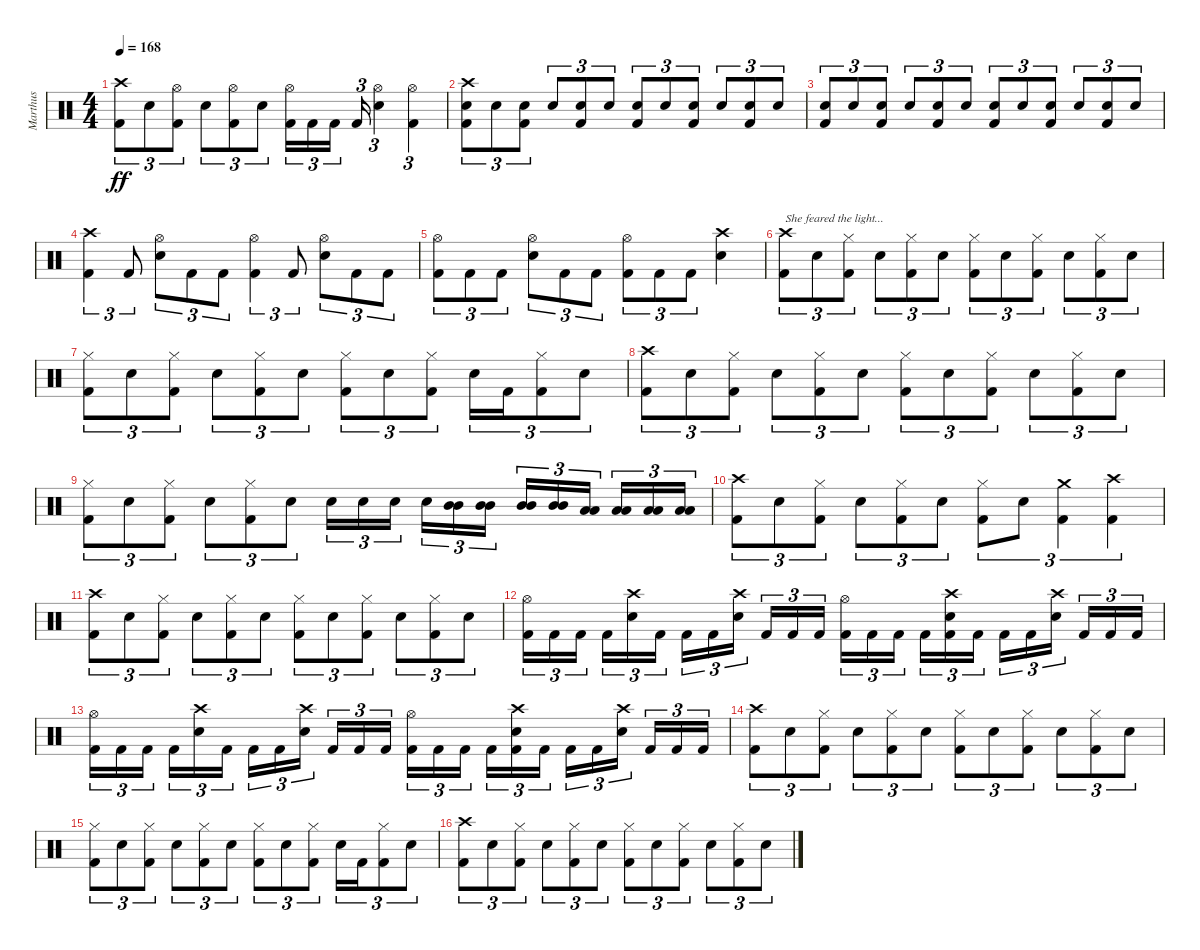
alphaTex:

\track ("Marthus" "Marthus") {instrument percussion}
\staff {score}
\articulation defaults
\ts (4 4)
\tempo 168
\clef neutral
\ks c
("Crash high (hit)" "Kick (hit) 2").8{tu (3 2) dy ff} "Electric Snare (hit)".8{tu (3 2)} ("Hi-Hat (open)" "Kick (hit) 2").8{tu (3 2)} "Electric Snare (hit)".8{tu (3 2)} ("Hi-Hat (open)" "Kick (hit) 2").8{tu (3 2)} "Electric Snare (hit)".8{tu (3 2)} ("Hi-Hat (open)" "Kick (hit) 2").16{tu (3 2)} "Kick (hit) 2".16{tu (3 2)} "Kick (hit) 2".16{tu (3 2) beam splitsecondary} "Kick (hit) 2".16{tu (3 2)} ("Hi-Hat (open)" "Electric Snare (hit)").4{tu (3 2)} ("Hi-Hat (open)" "Kick (hit) 2").4{tu (3 2)} |
("Crash high (hit)" "Electric Snare (hit)" "Kick (hit) 2").8{tu (3 2)} "Electric Snare (hit)".8{tu (3 2)} ("Electric Snare (hit)" "Kick (hit) 2").8{tu (3 2)} "Electric Snare (hit)".8{tu (3 2)} ("Electric Snare (hit)" "Kick (hit) 2").8{tu (3 2)} "Electric Snare (hit)".8{tu (3 2)} ("Electric Snare (hit)" "Kick (hit) 2").8{tu (3 2)} "Electric Snare (hit)".8{tu (3 2)} ("Electric Snare (hit)" "Kick (hit) 2").8{tu (3 2)} "Electric Snare (hit)".8{tu (3 2)} ("Electric Snare (hit)" "Kick (hit) 2").8{tu (3 2)} "Electric Snare (hit)".8{tu (3 2)} |
("Electric Snare (hit)" "Kick (hit) 2").8{tu (3 2)} "Electric Snare (hit)".8{tu (3 2)} ("Electric Snare (hit)" "Kick (hit) 2").8{tu (3 2)} "Electric Snare (hit)".8{tu (3 2)} ("Electric Snare (hit)" "Kick (hit) 2").8{tu (3 2)} "Electric Snare (hit)".8{tu (3 2)} ("Electric Snare (hit)" "Kick (hit) 2").8{tu (3 2)} "Electric Snare (hit)".8{tu (3 2)} ("Electric Snare (hit)" "Kick (hit) 2").8{tu (3 2)} "Electric Snare (hit)".8{tu (3 2)} ("Electric Snare (hit)" "Kick (hit) 2").8{tu (3 2)} "Electric Snare (hit)".8{tu (3 2)} |
("Crash high (hit)" "Kick (hit) 2").4{tu (3 2)} "Kick (hit) 2".8{tu (3 2)} ("Hi-Hat (open)" "Electric Snare (hit)").8{tu (3 2)} "Kick (hit) 2".8{tu (3 2)} "Kick (hit) 2".8{tu (3 2)} ("Hi-Hat (open)" "Kick (hit) 2").4{tu (3 2)} "Kick (hit) 2".8{tu (3 2)} ("Hi-Hat (open)" "Electric Snare (hit)").8{tu (3 2)} "Kick (hit) 2".8{tu (3 2)} "Kick (hit) 2".8{tu (3 2)} |
("Hi-Hat (open)" "Kick (hit) 2").8{tu (3 2)} "Kick (hit) 2".8{tu (3 2)} "Kick (hit) 2".8{tu (3 2)} ("Hi-Hat (open)" "Electric Snare (hit)").8{tu (3 2)} "Kick (hit) 2".8{tu (3 2)} "Kick (hit) 2".8{tu (3 2)} ("Hi-Hat (open)" "Kick (hit) 2").8{tu (3 2)} "Kick (hit) 2".8{tu (3 2)} "Kick (hit) 2".8{tu (3 2)} ("Crash high (hit)" "Electric Snare (hit)").4 |
("Crash high (hit)" "Kick (hit) 2").8{tu (3 2) txt "She feared the light..."} "Electric Snare (hit)".8{tu (3 2)} ("Hi-Hat (closed)" "Kick (hit) 2").8{tu (3 2)} "Electric Snare (hit)".8{tu (3 2)} ("Hi-Hat (closed)" "Kick (hit) 2").8{tu (3 2)} "Electric Snare (hit)".8{tu (3 2)} ("Hi-Hat (closed)" "Kick (hit) 2").8{tu (3 2)} "Electric Snare (hit)".8{tu (3 2)} ("Hi-Hat (closed)" "Kick (hit) 2").8{tu (3 2)} "Electric Snare (hit)".8{tu (3 2)} ("Hi-Hat (closed)" "Kick (hit) 2").8{tu (3 2)} "Electric Snare (hit)".8{tu (3 2)} |
("Hi-Hat (closed)" "Kick (hit) 2").8{tu (3 2)} "Electric Snare (hit)".8{tu (3 2)} ("Hi-Hat (closed)" "Kick (hit) 2").8{tu (3 2)} "Electric Snare (hit)".8{tu (3 2)} ("Hi-Hat (closed)" "Kick (hit) 2").8{tu (3 2)} "Electric Snare (hit)".8{tu (3 2)} ("Hi-Hat (closed)" "Kick (hit) 2").8{tu (3 2)} "Electric Snare (hit)".8{tu (3 2)} ("Hi-Hat (closed)" "Kick (hit) 2").8{tu (3 2)} "Electric Snare (hit)".16{tu (3 2)} "Kick (hit) 2".16{tu (3 2)} ("Hi-Hat (closed)" "Kick (hit) 2").8{tu (3 2)} "Electric Snare (hit)".8{tu (3 2)} |
("Crash high (hit)" "Kick (hit) 2").8{tu (3 2)} "Electric Snare (hit)".8{tu (3 2)} ("Hi-Hat (closed)" "Kick (hit) 2").8{tu (3 2)} "Electric Snare (hit)".8{tu (3 2)} ("Hi-Hat (closed)" "Kick (hit) 2").8{tu (3 2)} "Electric Snare (hit)".8{tu (3 2)} ("Hi-Hat (closed)" "Kick (hit) 2").8{tu (3 2)} "Electric Snare (hit)".8{tu (3 2)} ("Hi-Hat (closed)" "Kick (hit) 2").8{tu (3 2)} "Electric Snare (hit)".8{tu (3 2)} ("Hi-Hat (closed)" "Kick (hit) 2").8{tu (3 2)} "Electric Snare (hit)".8{tu (3 2)} |
("Hi-Hat (closed)" "Kick (hit) 2").8{tu (3 2)} "Electric Snare (hit)".8{tu (3 2)} ("Hi-Hat (closed)" "Kick (hit) 2").8{tu (3 2)} "Electric Snare (hit)".8{tu (3 2)} ("Hi-Hat (closed)" "Kick (hit) 2").8{tu (3 2)} "Electric Snare (hit)".8{tu (3 2)} "Electric Snare (hit)".16{tu (3 2)} "Electric Snare (hit)".16{tu (3 2)} "Electric Snare (hit)".16{tu (3 2) beam splitsecondary} "Electric Snare (hit)".16{tu (3 2)} ("Mid Tom (hit)" "Mid Tom (hit)").16{tu (3 2)} ("Mid Tom (hit)" "Mid Tom (hit)").16{tu (3 2)} ("Mid Tom (hit)" "Mid Tom (hit)").16{tu (3 2)} ("Mid Tom (hit)" "Mid Tom (hit)").16{tu (3 2)} ("Low Tom (hit)" "Low Tom (hit)").16{tu (3 2) beam splitsecondary} ("Low Tom (hit)" "Low Tom (hit)").16{tu (3 2)} ("Low Tom (hit)" "Low Tom (hit)").16{tu (3 2)} ("Low Tom (hit)" "Low Tom (hit)").16{tu (3 2)} |
("Crash high (hit)" "Kick (hit) 2").8{tu (3 2)} "Electric Snare (hit)".8{tu (3 2)} ("Hi-Hat (closed)" "Kick (hit) 2").8{tu (3 2)} "Electric Snare (hit)".8{tu (3 2)} ("Hi-Hat (closed)" "Kick (hit) 2").8{tu (3 2)} "Electric Snare (hit)".8{tu (3 2)} ("Hi-Hat (closed)" "Kick (hit) 2").8{tu (3 2)} "Electric Snare (hit)".8{tu (3 2)} ("Crash medium (hit)" "Kick (hit) 2").4{tu (3 2)} ("Crash high (hit)" "Kick (hit) 2").4{tu (3 2)} |
("Crash high (hit)" "Kick (hit) 2").8{tu (3 2)} "Electric Snare (hit)".8{tu (3 2)} ("Hi-Hat (closed)" "Kick (hit) 2").8{tu (3 2)} "Electric Snare (hit)".8{tu (3 2)} ("Hi-Hat (closed)" "Kick (hit) 2").8{tu (3 2)} "Electric Snare (hit)".8{tu (3 2)} ("Hi-Hat (closed)" "Kick (hit) 2").8{tu (3 2)} "Electric Snare (hit)".8{tu (3 2)} ("Hi-Hat (closed)" "Kick (hit) 2").8{tu (3 2)} "Electric Snare (hit)".8{tu (3 2)} ("Hi-Hat (closed)" "Kick (hit) 2").8{tu (3 2)} "Electric Snare (hit)".8{tu (3 2)} |
("Hi-Hat (open)" "Kick (hit) 2").16{tu (3 2)} "Kick (hit) 2".16{tu (3 2)} "Kick (hit) 2".16{tu (3 2) beam splitsecondary} "Kick (hit) 2".16{tu (3 2)} ("Crash high (hit)" "Electric Snare (hit)").16{tu (3 2)} "Kick (hit) 2".16{tu (3 2)} "Kick (hit) 2".16{tu (3 2)} "Kick (hit) 2".16{tu (3 2)} ("Crash high (hit)" "Electric Snare (hit)").16{tu (3 2) beam splitsecondary} "Kick (hit) 2".16{tu (3 2)} "Kick (hit) 2".16{tu (3 2)} "Kick (hit) 2".16{tu (3 2)} ("Hi-Hat (open)" "Kick (hit) 2").16{tu (3 2)} "Kick (hit) 2".16{tu (3 2)} "Kick (hit) 2".16{tu (3 2) beam splitsecondary} "Kick (hit) 2".16{tu (3 2)} ("Crash high (hit)" "Electric Snare (hit)" "Kick (hit) 2").16{tu (3 2)} "Kick (hit) 2".16{tu (3 2)} "Kick (hit) 2".16{tu (3 2)} "Kick (hit) 2".16{tu (3 2)} ("Crash high (hit)" "Electric Snare (hit)").16{tu (3 2) beam splitsecondary} "Kick (hit) 2".16{tu (3 2)} "Kick (hit) 2".16{tu (3 2)} "Kick (hit) 2".16{tu (3 2)} |
("Hi-Hat (open)" "Kick (hit) 2").16{tu (3 2)} "Kick (hit) 2".16{tu (3 2)} "Kick (hit) 2".16{tu (3 2) beam splitsecondary} "Kick (hit) 2".16{tu (3 2)} ("Crash high (hit)" "Electric Snare (hit)").16{tu (3 2)} "Kick (hit) 2".16{tu (3 2)} "Kick (hit) 2".16{tu (3 2)} "Kick (hit) 2".16{tu (3 2)} ("Crash high (hit)" "Electric Snare (hit)").16{tu (3 2) beam splitsecondary} "Kick (hit) 2".16{tu (3 2)} "Kick (hit) 2".16{tu (3 2)} "Kick (hit) 2".16{tu (3 2)} ("Hi-Hat (open)" "Kick (hit) 2").16{tu (3 2)} "Kick (hit) 2".16{tu (3 2)} "Kick (hit) 2".16{tu (3 2) beam splitsecondary} "Kick (hit) 2".16{tu (3 2)} ("Crash high (hit)" "Electric Snare (hit)" "Kick (hit) 2").16{tu (3 2)} "Kick (hit) 2".16{tu (3 2)} "Kick (hit) 2".16{tu (3 2)} "Kick (hit) 2".16{tu (3 2)} ("Crash high (hit)" "Electric Snare (hit)").16{tu (3 2) beam splitsecondary} "Kick (hit) 2".16{tu (3 2)} "Kick (hit) 2".16{tu (3 2)} "Kick (hit) 2".16{tu (3 2)} |
("Crash high (hit)" "Kick (hit) 2").8{tu (3 2)} "Electric Snare (hit)".8{tu (3 2)} ("Hi-Hat (closed)" "Kick (hit) 2").8{tu (3 2)} "Electric Snare (hit)".8{tu (3 2)} ("Hi-Hat (closed)" "Kick (hit) 2").8{tu (3 2)} "Electric Snare (hit)".8{tu (3 2)} ("Hi-Hat (closed)" "Kick (hit) 2").8{tu (3 2)} "Electric Snare (hit)".8{tu (3 2)} ("Hi-Hat (closed)" "Kick (hit) 2").8{tu (3 2)} "Electric Snare (hit)".8{tu (3 2)} ("Hi-Hat (closed)" "Kick (hit) 2").8{tu (3 2)} "Electric Snare (hit)".8{tu (3 2)} |
("Hi-Hat (closed)" "Kick (hit) 2").8{tu (3 2)} "Electric Snare (hit)".8{tu (3 2)} ("Hi-Hat (closed)" "Kick (hit) 2").8{tu (3 2)} "Electric Snare (hit)".8{tu (3 2)} ("Hi-Hat (closed)" "Kick (hit) 2").8{tu (3 2)} "Electric Snare (hit)".8{tu (3 2)} ("Hi-Hat (closed)" "Kick (hit) 2").8{tu (3 2)} "Electric Snare (hit)".8{tu (3 2)} ("Hi-Hat (closed)" "Kick (hit) 2").8{tu (3 2)} "Electric Snare (hit)".16{tu (3 2)} "Kick (hit) 2".16{tu (3 2)} ("Hi-Hat (closed)" "Kick (hit) 2").8{tu (3 2)} "Electric Snare (hit)".8{tu (3 2)} |
("Crash high (hit)" "Kick (hit) 2").8{tu (3 2)} "Electric Snare (hit)".8{tu (3 2)} ("Hi-Hat (closed)" "Kick (hit) 2").8{tu (3 2)} "Electric Snare (hit)".8{tu (3 2)} ("Hi-Hat (closed)" "Kick (hit) 2").8{tu (3 2)} "Electric Snare (hit)".8{tu (3 2)} ("Hi-Hat (closed)" "Kick (hit) 2").8{tu (3 2)} "Electric Snare (hit)".8{tu (3 2)} ("Hi-Hat (closed)" "Kick (hit) 2").8{tu (3 2)} "Electric Snare (hit)".8{tu (3 2)} ("Hi-Hat (closed)" "Kick (hit) 2").8{tu (3 2)} "Electric Snare (hit)".8{tu (3 2)}
